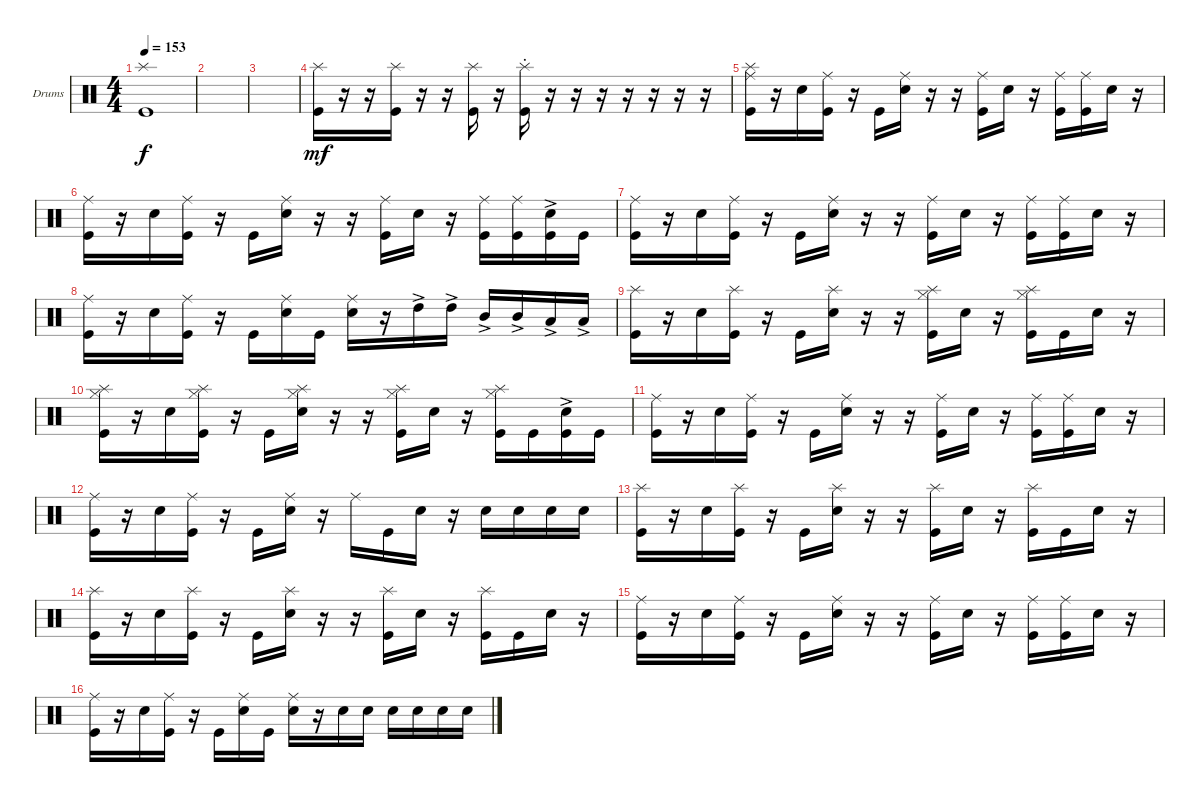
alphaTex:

\bracketExtendMode groupsimilarinstruments
\firstSystemTrackNameOrientation horizontal
\otherSystemsTrackNameOrientation horizontal
\track ("Drumkit" "Drums") {instrument percussion}
\staff {score}
\articulation defaults
\ts (4 4)
\tempo 153
\clef neutral
\ks c
("Kick (hit)" "Splash (hit)").1{dy f} |
|
|
("Kick (hit)" "Splash (hit)").16{dy mf} r.16 r.16 ("Kick (hit)" "Splash (hit)").16 r.16 r.16 ("Kick (hit)" "Splash (hit)").16 r.16 ("Kick (hit)" "Splash (hit)"{st}).16 r.16 r.16 r.16 r.16 r.16 r.16 r.16 |
("Kick (hit)" "Ride (middle)" "Splash (hit)").16 r.16 "Snare (hit) 2".16 ("Kick (hit)" "Ride (middle)").16 r.16 "Kick (hit)".16 ("Snare (hit) 2" "Ride (middle)").16 r.16 r.16 ("Kick (hit)" "Ride (middle)").16 "Snare (hit) 2".16 r.16 ("Kick (hit)" "Ride (middle)").16 ("Kick (hit)" "Ride (middle)").16 "Snare (hit) 2".16 r.16 |
("Kick (hit)" "Ride (middle)").16 r.16 "Snare (hit) 2".16 ("Kick (hit)" "Ride (middle)").16 r.16 "Kick (hit)".16 ("Snare (hit) 2" "Ride (middle)").16 r.16 r.16 ("Kick (hit)" "Ride (middle)").16 "Snare (hit) 2".16 r.16 ("Kick (hit)" "Ride (middle)").16 ("Kick (hit)" "Ride (middle)").16 ("Snare (hit) 2"{ac} "Kick (hit)").16 "Kick (hit)".16 |
("Kick (hit)" "Ride (middle)").16 r.16 "Snare (hit) 2".16 ("Kick (hit)" "Ride (middle)").16 r.16 "Kick (hit)".16 ("Snare (hit) 2" "Ride (middle)").16 r.16 r.16 ("Kick (hit)" "Ride (middle)").16 "Snare (hit) 2".16 r.16 ("Kick (hit)" "Ride (middle)").16 ("Kick (hit)" "Ride (middle)").16 "Snare (hit) 2".16 r.16 |
("Kick (hit)" "Ride (middle)").16 r.16 "Snare (hit) 2".16 ("Kick (hit)" "Ride (middle)").16 r.16 "Kick (hit)".16 ("Snare (hit) 2" "Ride (middle)").16 "Kick (hit)".16 ("Snare (hit) 2" "Ride (middle)").16 r.16 "High Tom (hit)"{ac}.16 "High Tom (hit)"{ac}.16 "Mid Tom (hit)"{ac}.16 "Mid Tom (hit)"{ac}.16 "Low Tom (hit)"{ac}.16 "Low Tom (hit)"{ac}.16 |
("Kick (hit)" "Splash (hit)").16 r.16 "Snare (hit) 2".16 ("Kick (hit)" "Splash (hit)").16 r.16 "Kick (hit)".16 ("Snare (hit) 2" "Splash (hit)").16 r.16 r.16 ("Kick (hit)" "Hi-Hat (closed)" "Splash (hit)").16 "Snare (hit) 2".16 r.16 ("Kick (hit)" "Hi-Hat (closed)" "Splash (hit)").16 "Kick (hit)".16 "Snare (hit) 2".16 r.16 |
("Kick (hit)" "Hi-Hat (closed)" "Splash (hit)").16 r.16 "Snare (hit) 2".16 ("Kick (hit)" "Hi-Hat (closed)" "Splash (hit)").16 r.16 "Kick (hit)".16 ("Snare (hit) 2" "Hi-Hat (closed)" "Splash (hit)").16 r.16 r.16 ("Kick (hit)" "Hi-Hat (closed)" "Splash (hit)").16 "Snare (hit) 2".16 r.16 ("Kick (hit)" "Hi-Hat (closed)" "Splash (hit)").16 "Kick (hit)".16 ("Snare (hit) 2"{ac} "Kick (hit)").16 "Kick (hit)".16 |
("Kick (hit)" "Ride (middle)").16 r.16 "Snare (hit) 2".16 ("Kick (hit)" "Ride (middle)").16 r.16 "Kick (hit)".16 ("Snare (hit) 2" "Ride (middle)").16 r.16 r.16 ("Kick (hit)" "Ride (middle)").16 "Snare (hit) 2".16 r.16 ("Kick (hit)" "Ride (middle)").16 ("Kick (hit)" "Ride (middle)").16 "Snare (hit) 2".16 r.16 |
("Kick (hit)" "Ride (middle)").16 r.16 "Snare (hit) 2".16 ("Kick (hit)" "Ride (middle)").16 r.16 "Kick (hit)".16 ("Snare (hit) 2" "Ride (middle)").16 r.16 "Ride (middle)".16 "Kick (hit)".16 "Snare (hit) 2".16 r.16 "Snare (hit) 2".16 "Snare (hit) 2".16 "Snare (hit) 2".16 "Snare (hit) 2".16 |
("Kick (hit)" "Splash (hit)").16 r.16 "Snare (hit) 2".16 ("Kick (hit)" "Splash (hit)").16 r.16 "Kick (hit)".16 ("Snare (hit) 2" "Splash (hit)").16 r.16 r.16 ("Kick (hit)" "Splash (hit)").16 "Snare (hit) 2".16 r.16 ("Kick (hit)" "Splash (hit)").16 "Kick (hit)".16 "Snare (hit) 2".16 r.16 |
("Kick (hit)" "Splash (hit)").16 r.16 "Snare (hit) 2".16 ("Kick (hit)" "Splash (hit)").16 r.16 "Kick (hit)".16 ("Snare (hit) 2" "Splash (hit)").16 r.16 r.16 ("Kick (hit)" "Splash (hit)").16 "Snare (hit) 2".16 r.16 ("Kick (hit)" "Splash (hit)").16 "Kick (hit)".16 "Snare (hit) 2".16 r.16 |
("Kick (hit)" "Ride (middle)").16 r.16 "Snare (hit) 2".16 ("Kick (hit)" "Ride (middle)").16 r.16 "Kick (hit)".16 ("Snare (hit) 2" "Ride (middle)").16 r.16 r.16 ("Kick (hit)" "Ride (middle)").16 "Snare (hit) 2".16 r.16 ("Kick (hit)" "Ride (middle)").16 ("Kick (hit)" "Ride (middle)").16 "Snare (hit) 2".16 r.16 |
("Kick (hit)" "Ride (middle)").16 r.16 "Snare (hit) 2".16 ("Kick (hit)" "Ride (middle)").16 r.16 "Kick (hit)".16 ("Snare (hit) 2" "Ride (middle)").16 "Kick (hit)".16 ("Snare (hit) 2" "Ride (middle)").16 r.16 "Snare (hit) 2".16 "Snare (hit) 2".16 "Snare (hit) 2".16 "Snare (hit) 2".16 "Snare (hit) 2".16 "Snare (hit) 2".16
